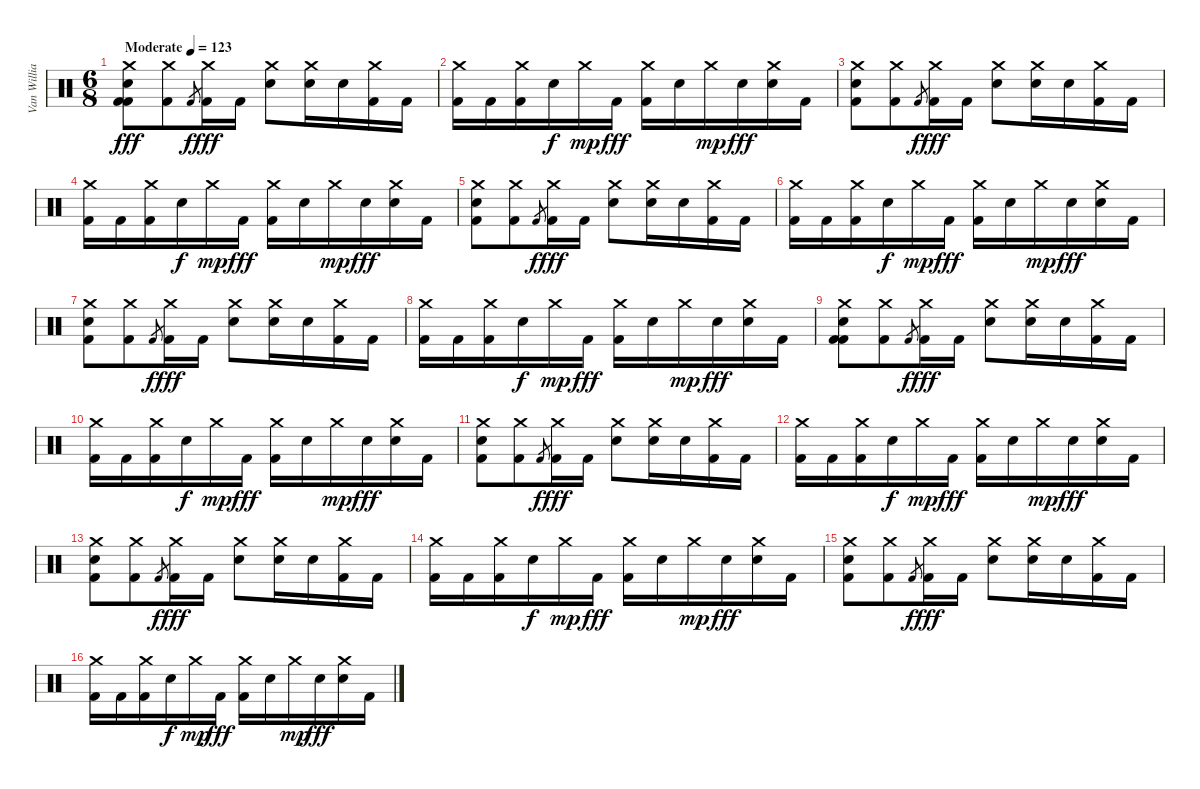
\track ("Van Williams" "Van Willia") {instrument percussion}
\staff {score}
\articulation defaults
\ts (6 8)
\tempo (123 "Moderate")
\clef neutral
\ks c
("Crash medium (hit)" "Electric Snare (hit)" "Kick (hit) 2" "Kick (hit) 2").8{dy fff} ("Crash medium (hit)" "Kick (hit) 2").8 "Kick (hit) 2".8{gr dy f} ("Crash medium (hit)" "Kick (hit) 2").16{dy fff} "Kick (hit) 2".16 ("Crash medium (hit)" "Electric Snare (hit)").8 ("Crash medium (hit)" "Electric Snare (hit)").16 "Electric Snare (hit)".16 ("Crash medium (hit)" "Kick (hit) 2").16 "Kick (hit) 2".16 |
("Crash medium (hit)" "Kick (hit) 2").16 "Kick (hit) 2".16 ("Crash medium (hit)" "Kick (hit) 2").16 "Electric Snare (hit)".16{dy f} "Crash medium (hit)".16{dy mp} "Kick (hit) 2".16{dy fff} ("Crash medium (hit)" "Kick (hit) 2").16 "Electric Snare (hit)".16 "Crash medium (hit)".16{dy mp} "Electric Snare (hit)".16{dy fff} ("Crash medium (hit)" "Electric Snare (hit)").16 "Kick (hit) 2".16 |
("Crash medium (hit)" "Electric Snare (hit)" "Kick (hit) 2").8 ("Crash medium (hit)" "Kick (hit) 2").8 "Kick (hit) 2".8{gr dy f} ("Crash medium (hit)" "Kick (hit) 2").16{dy fff} "Kick (hit) 2".16 ("Crash medium (hit)" "Electric Snare (hit)").8 ("Crash medium (hit)" "Electric Snare (hit)").16 "Electric Snare (hit)".16 ("Crash medium (hit)" "Kick (hit) 2").16 "Kick (hit) 2".16 |
("Crash medium (hit)" "Kick (hit) 2").16 "Kick (hit) 2".16 ("Crash medium (hit)" "Kick (hit) 2").16 "Electric Snare (hit)".16{dy f} "Crash medium (hit)".16{dy mp} "Kick (hit) 2".16{dy fff} ("Crash medium (hit)" "Kick (hit) 2").16 "Electric Snare (hit)".16 "Crash medium (hit)".16{dy mp} "Electric Snare (hit)".16{dy fff} ("Crash medium (hit)" "Electric Snare (hit)").16 "Kick (hit) 2".16 |
("Crash medium (hit)" "Electric Snare (hit)" "Kick (hit) 2").8 ("Crash medium (hit)" "Kick (hit) 2").8 "Kick (hit) 2".8{gr dy f} ("Crash medium (hit)" "Kick (hit) 2").16{dy fff} "Kick (hit) 2".16 ("Crash medium (hit)" "Electric Snare (hit)").8 ("Crash medium (hit)" "Electric Snare (hit)").16 "Electric Snare (hit)".16 ("Crash medium (hit)" "Kick (hit) 2").16 "Kick (hit) 2".16 |
("Crash medium (hit)" "Kick (hit) 2").16 "Kick (hit) 2".16 ("Crash medium (hit)" "Kick (hit) 2").16 "Electric Snare (hit)".16{dy f} "Crash medium (hit)".16{dy mp} "Kick (hit) 2".16{dy fff} ("Crash medium (hit)" "Kick (hit) 2").16 "Electric Snare (hit)".16 "Crash medium (hit)".16{dy mp} "Electric Snare (hit)".16{dy fff} ("Crash medium (hit)" "Electric Snare (hit)").16 "Kick (hit) 2".16 |
("Crash medium (hit)" "Electric Snare (hit)" "Kick (hit) 2").8 ("Crash medium (hit)" "Kick (hit) 2").8 "Kick (hit) 2".8{gr dy f} ("Crash medium (hit)" "Kick (hit) 2").16{dy fff} "Kick (hit) 2".16 ("Crash medium (hit)" "Electric Snare (hit)").8 ("Crash medium (hit)" "Electric Snare (hit)").16 "Electric Snare (hit)".16 ("Crash medium (hit)" "Kick (hit) 2").16 "Kick (hit) 2".16 |
("Crash medium (hit)" "Kick (hit) 2").16 "Kick (hit) 2".16 ("Crash medium (hit)" "Kick (hit) 2").16 "Electric Snare (hit)".16{dy f} "Crash medium (hit)".16{dy mp} "Kick (hit) 2".16{dy fff} ("Crash medium (hit)" "Kick (hit) 2").16 "Electric Snare (hit)".16 "Crash medium (hit)".16{dy mp} "Electric Snare (hit)".16{dy fff} ("Crash medium (hit)" "Electric Snare (hit)").16 "Kick (hit) 2".16 |
("Crash medium (hit)" "Electric Snare (hit)" "Kick (hit) 2" "Kick (hit) 2").8 ("Crash medium (hit)" "Kick (hit) 2").8 "Kick (hit) 2".8{gr dy f} ("Crash medium (hit)" "Kick (hit) 2").16{dy fff} "Kick (hit) 2".16 ("Crash medium (hit)" "Electric Snare (hit)").8 ("Crash medium (hit)" "Electric Snare (hit)").16 "Electric Snare (hit)".16 ("Crash medium (hit)" "Kick (hit) 2").16 "Kick (hit) 2".16 |
("Crash medium (hit)" "Kick (hit) 2").16 "Kick (hit) 2".16 ("Crash medium (hit)" "Kick (hit) 2").16 "Electric Snare (hit)".16{dy f} "Crash medium (hit)".16{dy mp} "Kick (hit) 2".16{dy fff} ("Crash medium (hit)" "Kick (hit) 2").16 "Electric Snare (hit)".16 "Crash medium (hit)".16{dy mp} "Electric Snare (hit)".16{dy fff} ("Crash medium (hit)" "Electric Snare (hit)").16 "Kick (hit) 2".16 |
("Crash medium (hit)" "Electric Snare (hit)" "Kick (hit) 2").8 ("Crash medium (hit)" "Kick (hit) 2").8 "Kick (hit) 2".8{gr dy f} ("Crash medium (hit)" "Kick (hit) 2").16{dy fff} "Kick (hit) 2".16 ("Crash medium (hit)" "Electric Snare (hit)").8 ("Crash medium (hit)" "Electric Snare (hit)").16 "Electric Snare (hit)".16 ("Crash medium (hit)" "Kick (hit) 2").16 "Kick (hit) 2".16 |
("Crash medium (hit)" "Kick (hit) 2").16 "Kick (hit) 2".16 ("Crash medium (hit)" "Kick (hit) 2").16 "Electric Snare (hit)".16{dy f} "Crash medium (hit)".16{dy mp} "Kick (hit) 2".16{dy fff} ("Crash medium (hit)" "Kick (hit) 2").16 "Electric Snare (hit)".16 "Crash medium (hit)".16{dy mp} "Electric Snare (hit)".16{dy fff} ("Crash medium (hit)" "Electric Snare (hit)").16 "Kick (hit) 2".16 |
("Crash medium (hit)" "Electric Snare (hit)" "Kick (hit) 2").8 ("Crash medium (hit)" "Kick (hit) 2").8 "Kick (hit) 2".8{gr dy f} ("Crash medium (hit)" "Kick (hit) 2").16{dy fff} "Kick (hit) 2".16 ("Crash medium (hit)" "Electric Snare (hit)").8 ("Crash medium (hit)" "Electric Snare (hit)").16 "Electric Snare (hit)".16 ("Crash medium (hit)" "Kick (hit) 2").16 "Kick (hit) 2".16 |
("Crash medium (hit)" "Kick (hit) 2").16 "Kick (hit) 2".16 ("Crash medium (hit)" "Kick (hit) 2").16 "Electric Snare (hit)".16{dy f} "Crash medium (hit)".16{dy mp} "Kick (hit) 2".16{dy fff} ("Crash medium (hit)" "Kick (hit) 2").16 "Electric Snare (hit)".16 "Crash medium (hit)".16{dy mp} "Electric Snare (hit)".16{dy fff} ("Crash medium (hit)" "Electric Snare (hit)").16 "Kick (hit) 2".16 |
("Crash medium (hit)" "Electric Snare (hit)" "Kick (hit) 2").8 ("Crash medium (hit)" "Kick (hit) 2").8 "Kick (hit) 2".8{gr dy f} ("Crash medium (hit)" "Kick (hit) 2").16{dy fff} "Kick (hit) 2".16 ("Crash medium (hit)" "Electric Snare (hit)").8 ("Crash medium (hit)" "Electric Snare (hit)").16 "Electric Snare (hit)".16 ("Crash medium (hit)" "Kick (hit) 2").16 "Kick (hit) 2".16 |
("Crash medium (hit)" "Kick (hit) 2").16 "Kick (hit) 2".16 ("Crash medium (hit)" "Kick (hit) 2").16 "Electric Snare (hit)".16{dy f} "Crash medium (hit)".16{dy mp} "Kick (hit) 2".16{dy fff} ("Crash medium (hit)" "Kick (hit) 2").16 "Electric Snare (hit)".16 "Crash medium (hit)".16{dy mp} "Electric Snare (hit)".16{dy fff} ("Crash medium (hit)" "Electric Snare (hit)").16 "Kick (hit) 2".16
